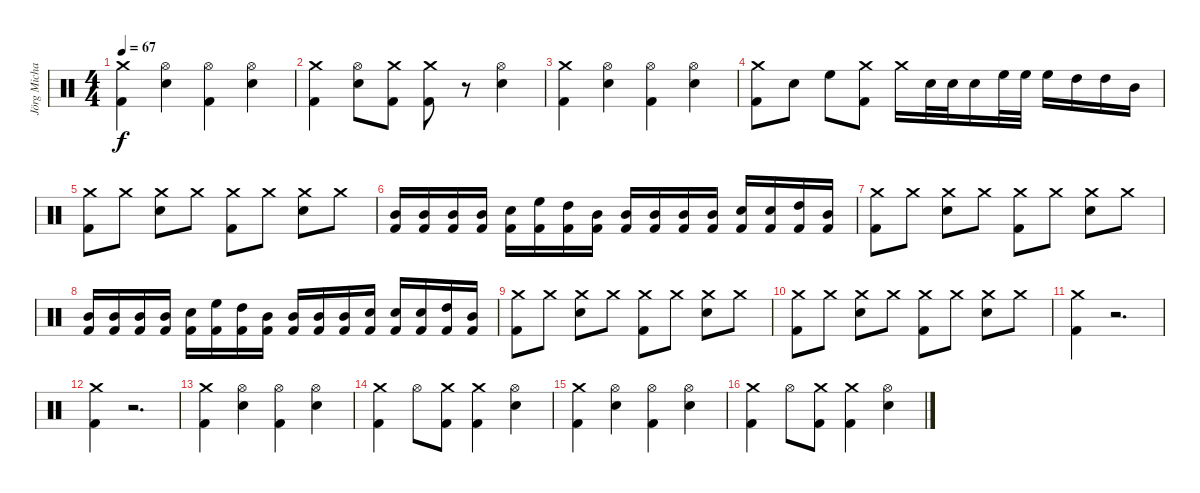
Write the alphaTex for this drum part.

\track ("Jörg Michael" "Jörg Micha") {instrument percussion}
\staff {score}
\articulation defaults
\ts (4 4)
\tempo 67
\clef neutral
\ks c
("Kick (hit) 2" "Crash medium (hit)").4{dy f} ("Snare (hit) 2" "Hi-Hat (open)").4 ("Kick (hit) 2" "Hi-Hat (open)").4 ("Snare (hit) 2" "Hi-Hat (open)").4 |
("Kick (hit) 2" "Crash medium (hit)").4 ("Snare (hit) 2" "Hi-Hat (open)").8 ("Crash medium (hit)" "Kick (hit) 2").8 ("Crash medium (hit)" "Kick (hit) 2").8 r.8 ("Snare (hit) 2" "Hi-Hat (open)").4 |
("Kick (hit) 2" "Crash medium (hit)").4 ("Snare (hit) 2" "Hi-Hat (open)").4 ("Kick (hit) 2" "Hi-Hat (open)").4 ("Snare (hit) 2" "Hi-Hat (open)").4 |
("Crash medium (hit)" "Kick (hit) 2").8 "Snare (hit) 2".8 "High Floor Tom (hit)".8 ("Kick (hit) 2" "Crash medium (hit)").8 "Crash medium (hit)".16 "Snare (hit) 2".32 "Snare (hit) 2".32 "Snare (hit) 2".16 "High Floor Tom (hit)".32 "High Floor Tom (hit)".32 "High Floor Tom (hit)".16 "High Tom (hit)".16 "High Tom (hit)".16 "Mid Tom (hit)".16 |
("Kick (hit) 2" "Crash medium (hit)").8 "Crash medium (hit)".8 ("Snare (hit) 2" "Crash medium (hit)").8 "Crash medium (hit)".8 ("Kick (hit) 2" "Crash medium (hit)").8 "Crash medium (hit)".8 ("Snare (hit) 2" "Crash medium (hit)").8 "Crash medium (hit)".8 |
("Mid Tom (hit)" "Kick (hit) 2").16 ("Mid Tom (hit)" "Kick (hit) 2").16 ("Mid Tom (hit)" "Kick (hit) 2").16 ("Mid Tom (hit)" "Kick (hit) 2").16 ("Snare (hit) 2" "Kick (hit) 2").16 ("High Floor Tom (hit)" "Kick (hit) 2").16 ("High Tom (hit)" "Kick (hit) 2").16 ("Mid Tom (hit)" "Kick (hit) 2").16 ("Mid Tom (hit)" "Kick (hit) 2").16 ("Mid Tom (hit)" "Kick (hit) 2").16 ("Mid Tom (hit)" "Kick (hit) 2").16 ("Mid Tom (hit)" "Kick (hit) 2").16 ("Snare (hit) 2" "Kick (hit) 2").16 ("Snare (hit) 2" "Kick (hit) 2").16 ("High Tom (hit)" "Kick (hit) 2").16 ("Mid Tom (hit)" "Kick (hit) 2").16 |
("Kick (hit) 2" "Crash medium (hit)").8 "Crash medium (hit)".8 ("Snare (hit) 2" "Crash medium (hit)").8 "Crash medium (hit)".8 ("Kick (hit) 2" "Crash medium (hit)").8 "Crash medium (hit)".8 ("Snare (hit) 2" "Crash medium (hit)").8 "Crash medium (hit)".8 |
("Mid Tom (hit)" "Kick (hit) 2").16 ("Mid Tom (hit)" "Kick (hit) 2").16 ("Mid Tom (hit)" "Kick (hit) 2").16 ("Mid Tom (hit)" "Kick (hit) 2").16 ("Snare (hit) 2" "Kick (hit) 2").16 ("High Floor Tom (hit)" "Kick (hit) 2").16 ("High Tom (hit)" "Kick (hit) 2").16 ("Mid Tom (hit)" "Kick (hit) 2").16 ("Mid Tom (hit)" "Kick (hit) 2").16 ("Mid Tom (hit)" "Kick (hit) 2").16 ("Mid Tom (hit)" "Kick (hit) 2").16 ("Snare (hit) 2" "Kick (hit) 2").16 ("Snare (hit) 2" "Kick (hit) 2").16 ("Snare (hit) 2" "Kick (hit) 2").16 ("High Tom (hit)" "Kick (hit) 2").16 ("Mid Tom (hit)" "Kick (hit) 2").16 |
("Kick (hit) 2" "Crash medium (hit)").8 "Crash medium (hit)".8 ("Snare (hit) 2" "Crash medium (hit)").8 "Crash medium (hit)".8 ("Kick (hit) 2" "Crash medium (hit)").8 "Crash medium (hit)".8 ("Snare (hit) 2" "Crash medium (hit)").8 "Crash medium (hit)".8 |
("Kick (hit) 2" "Crash medium (hit)").8 "Crash medium (hit)".8 ("Snare (hit) 2" "Crash medium (hit)").8 "Crash medium (hit)".8 ("Kick (hit) 2" "Crash medium (hit)").8 "Crash medium (hit)".8 ("Snare (hit) 2" "Crash medium (hit)").8 "Crash medium (hit)".8 |
("Kick (hit) 2" "Crash medium (hit)").4 r.2{d} |
("Crash medium (hit)" "Kick (hit) 2").4 r.2{d} |
("Kick (hit) 2" "Crash medium (hit)").4 ("Snare (hit) 2" "Hi-Hat (open)").4 ("Kick (hit) 2" "Hi-Hat (open)").4 ("Snare (hit) 2" "Hi-Hat (open)").4 |
("Kick (hit) 2" "Crash medium (hit)").4 "Hi-Hat (open)".8 ("Kick (hit) 2" "Crash medium (hit)").8 ("Kick (hit) 2" "Crash medium (hit)").4 ("Snare (hit) 2" "Hi-Hat (open)").4 |
("Kick (hit) 2" "Crash medium (hit)").4 ("Snare (hit) 2" "Hi-Hat (open)").4 ("Kick (hit) 2" "Hi-Hat (open)").4 ("Snare (hit) 2" "Hi-Hat (open)").4 |
("Kick (hit) 2" "Crash medium (hit)").4 "Hi-Hat (open)".8 ("Kick (hit) 2" "Crash medium (hit)").8 ("Kick (hit) 2" "Crash medium (hit)").4 ("Snare (hit) 2" "Hi-Hat (open)").4
